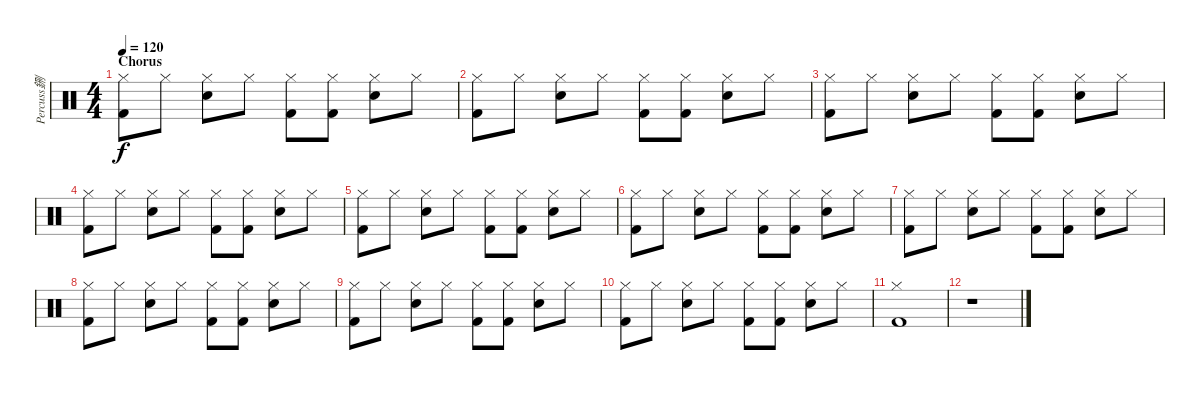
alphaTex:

\track ("Percuss鉶" "Percuss鉶") {instrument percussion}
\staff {score}
\articulation defaults
\ts (4 4)
\section ("" "Chorus")
\tempo 120
\clef neutral
\ks c
("Hi-Hat (closed)" "Kick (hit) 2").8{dy f} "Hi-Hat (closed)".8 ("Hi-Hat (closed)" "Snare (hit) 2").8 "Hi-Hat (closed)".8 ("Hi-Hat (closed)" "Kick (hit) 2").8 ("Hi-Hat (closed)" "Kick (hit) 2").8 ("Hi-Hat (closed)" "Snare (hit) 2").8 "Hi-Hat (closed)".8 |
("Hi-Hat (closed)" "Kick (hit) 2").8 "Hi-Hat (closed)".8 ("Hi-Hat (closed)" "Snare (hit) 2").8 "Hi-Hat (closed)".8 ("Hi-Hat (closed)" "Kick (hit) 2").8 ("Hi-Hat (closed)" "Kick (hit) 2").8 ("Hi-Hat (closed)" "Snare (hit) 2").8 "Hi-Hat (closed)".8 |
("Hi-Hat (closed)" "Kick (hit) 2").8 "Hi-Hat (closed)".8 ("Hi-Hat (closed)" "Snare (hit) 2").8 "Hi-Hat (closed)".8 ("Hi-Hat (closed)" "Kick (hit) 2").8 ("Hi-Hat (closed)" "Kick (hit) 2").8 ("Hi-Hat (closed)" "Snare (hit) 2").8 "Hi-Hat (closed)".8 |
("Hi-Hat (closed)" "Kick (hit) 2").8 "Hi-Hat (closed)".8 ("Hi-Hat (closed)" "Snare (hit) 2").8 "Hi-Hat (closed)".8 ("Hi-Hat (closed)" "Kick (hit) 2").8 ("Hi-Hat (closed)" "Kick (hit) 2").8 ("Hi-Hat (closed)" "Snare (hit) 2").8 "Hi-Hat (closed)".8 |
("Hi-Hat (closed)" "Kick (hit) 2").8 "Hi-Hat (closed)".8 ("Hi-Hat (closed)" "Snare (hit) 2").8 "Hi-Hat (closed)".8 ("Hi-Hat (closed)" "Kick (hit) 2").8 ("Hi-Hat (closed)" "Kick (hit) 2").8 ("Hi-Hat (closed)" "Snare (hit) 2").8 "Hi-Hat (closed)".8 |
("Hi-Hat (closed)" "Kick (hit) 2").8 "Hi-Hat (closed)".8 ("Hi-Hat (closed)" "Snare (hit) 2").8 "Hi-Hat (closed)".8 ("Hi-Hat (closed)" "Kick (hit) 2").8 ("Hi-Hat (closed)" "Kick (hit) 2").8 ("Hi-Hat (closed)" "Snare (hit) 2").8 "Hi-Hat (closed)".8 |
("Hi-Hat (closed)" "Kick (hit) 2").8 "Hi-Hat (closed)".8 ("Hi-Hat (closed)" "Snare (hit) 2").8 "Hi-Hat (closed)".8 ("Hi-Hat (closed)" "Kick (hit) 2").8 ("Hi-Hat (closed)" "Kick (hit) 2").8 ("Hi-Hat (closed)" "Snare (hit) 2").8 "Hi-Hat (closed)".8 |
("Hi-Hat (closed)" "Kick (hit) 2").8 "Hi-Hat (closed)".8 ("Hi-Hat (closed)" "Snare (hit) 2").8 "Hi-Hat (closed)".8 ("Hi-Hat (closed)" "Kick (hit) 2").8 ("Hi-Hat (closed)" "Kick (hit) 2").8 ("Hi-Hat (closed)" "Snare (hit) 2").8 "Hi-Hat (closed)".8 |
("Hi-Hat (closed)" "Kick (hit) 2").8 "Hi-Hat (closed)".8 ("Hi-Hat (closed)" "Snare (hit) 2").8 "Hi-Hat (closed)".8 ("Hi-Hat (closed)" "Kick (hit) 2").8 ("Hi-Hat (closed)" "Kick (hit) 2").8 ("Hi-Hat (closed)" "Snare (hit) 2").8 "Hi-Hat (closed)".8 |
("Hi-Hat (closed)" "Kick (hit) 2").8 "Hi-Hat (closed)".8 ("Hi-Hat (closed)" "Snare (hit) 2").8 "Hi-Hat (closed)".8 ("Hi-Hat (closed)" "Kick (hit) 2").8 ("Hi-Hat (closed)" "Kick (hit) 2").8 ("Hi-Hat (closed)" "Snare (hit) 2").8 "Hi-Hat (closed)".8 |
("Hi-Hat (closed)" "Kick (hit) 2").1 |
r.1
